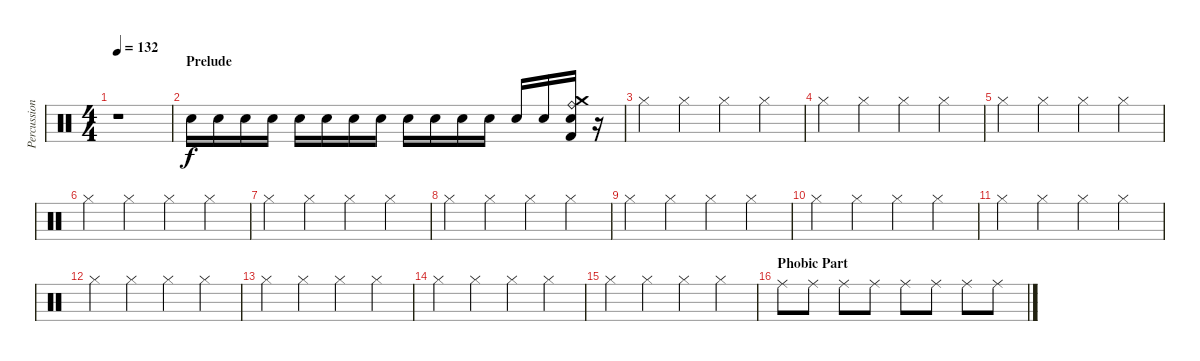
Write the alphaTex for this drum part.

\track ("Percussion" "Percussion") {instrument percussion}
\staff {score}
\articulation defaults
\ts (4 4)
\tempo 132
\clef neutral
\ks c
r.1{dy f} |
\section ("" "Prelude")
"Snare (hit) 2".16 "Snare (hit) 2".16 "Snare (hit) 2".16 "Snare (hit) 2".16 "Snare (hit) 2".16 "Snare (hit) 2".16 "Snare (hit) 2".16 "Snare (hit) 2".16 "Snare (hit) 2".16 "Snare (hit) 2".16 "Snare (hit) 2".16 "Snare (hit) 2".16 "Snare (hit) 2".16 "Snare (hit) 2".16 ("Ride (bell)" "Crash medium (hit)" "Snare (hit) 2" "Kick (hit) 2").16 r.16 |
"Hi-Hat (closed)".4 "Hi-Hat (closed)".4 "Hi-Hat (closed)".4 "Hi-Hat (closed)".4 |
"Hi-Hat (closed)".4 "Hi-Hat (closed)".4 "Hi-Hat (closed)".4 "Hi-Hat (closed)".4 |
"Hi-Hat (closed)".4 "Hi-Hat (closed)".4 "Hi-Hat (closed)".4 "Hi-Hat (closed)".4 |
"Hi-Hat (closed)".4 "Hi-Hat (closed)".4 "Hi-Hat (closed)".4 "Hi-Hat (closed)".4 |
"Hi-Hat (closed)".4 "Hi-Hat (closed)".4 "Hi-Hat (closed)".4 "Hi-Hat (closed)".4 |
"Hi-Hat (closed)".4 "Hi-Hat (closed)".4 "Hi-Hat (closed)".4 "Hi-Hat (closed)".4 |
"Hi-Hat (closed)".4 "Hi-Hat (closed)".4 "Hi-Hat (closed)".4 "Hi-Hat (closed)".4 |
"Hi-Hat (closed)".4 "Hi-Hat (closed)".4 "Hi-Hat (closed)".4 "Hi-Hat (closed)".4 |
"Hi-Hat (closed)".4 "Hi-Hat (closed)".4 "Hi-Hat (closed)".4 "Hi-Hat (closed)".4 |
"Hi-Hat (closed)".4 "Hi-Hat (closed)".4 "Hi-Hat (closed)".4 "Hi-Hat (closed)".4 |
"Hi-Hat (closed)".4 "Hi-Hat (closed)".4 "Hi-Hat (closed)".4 "Hi-Hat (closed)".4 |
"Hi-Hat (closed)".4 "Hi-Hat (closed)".4 "Hi-Hat (closed)".4 "Hi-Hat (closed)".4 |
"Hi-Hat (closed)".4 "Hi-Hat (closed)".4 "Hi-Hat (closed)".4 "Hi-Hat (closed)".4 |
\section ("" "Phobic Part")
"Ride (middle)".8 "Ride (middle)".8 "Ride (middle)".8 "Ride (middle)".8 "Ride (middle)".8 "Ride (middle)".8 "Ride (middle)".8 "Ride (middle)".8
